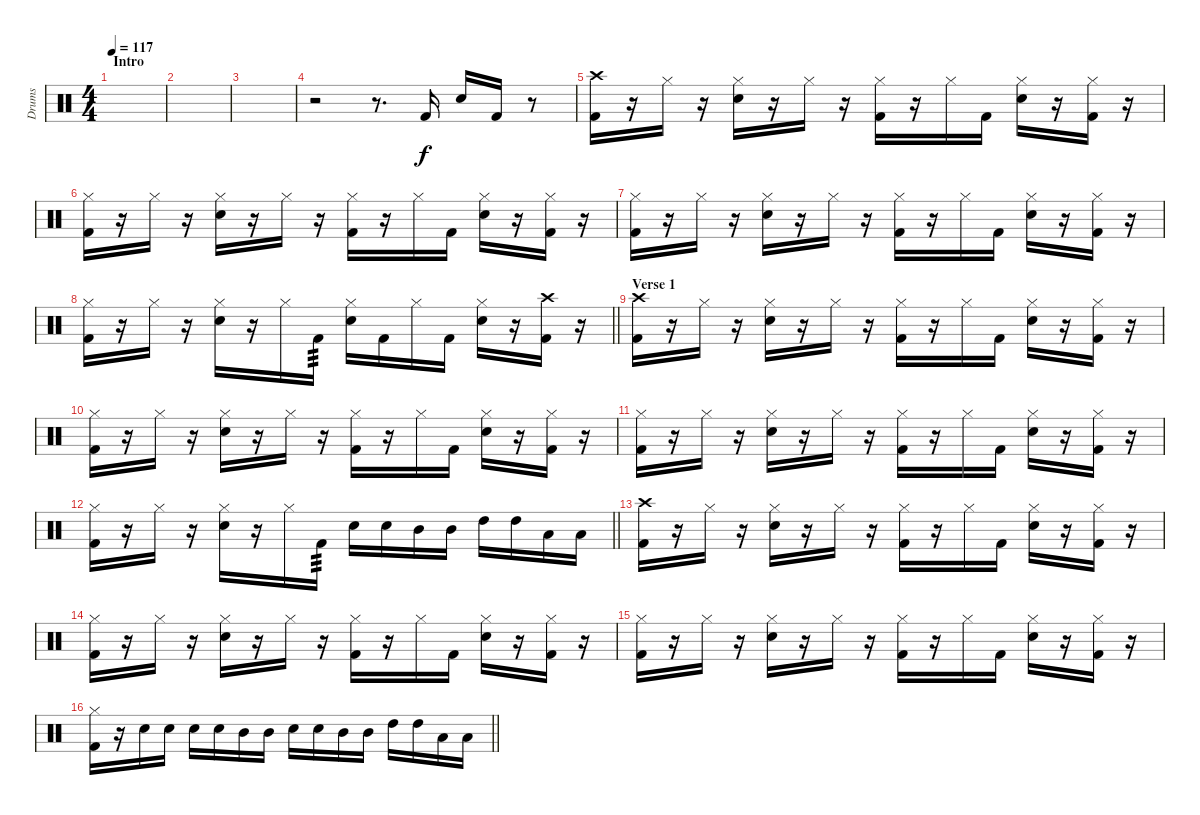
\track ("Drums" "Drums") {instrument percussion}
\staff {score}
\articulation defaults
\ts (4 4)
\section ("" "Intro")
\tempo 117
\clef neutral
\ks c
|
|
|
r.2 r.8{d} "Kick (hit) 2".16 "Electric Snare (hit)".16 "Kick (hit) 2".16 r.8 |
("Crash high (hit)" "Kick (hit) 2").16 r.16 "Hi-Hat (closed)".16 r.16 ("Hi-Hat (closed)" "Electric Snare (hit)").16 r.16 "Hi-Hat (closed)".16 r.16 ("Hi-Hat (closed)" "Kick (hit) 2").16 r.16 "Hi-Hat (closed)".16 "Kick (hit) 2".16 ("Hi-Hat (closed)" "Electric Snare (hit)").16 r.16 ("Hi-Hat (closed)" "Kick (hit) 2").16 r.16 |
("Hi-Hat (closed)" "Kick (hit) 2").16 r.16 "Hi-Hat (closed)".16 r.16 ("Hi-Hat (closed)" "Electric Snare (hit)").16 r.16 "Hi-Hat (closed)".16 r.16 ("Hi-Hat (closed)" "Kick (hit) 2").16 r.16 "Hi-Hat (closed)".16 "Kick (hit) 2".16 ("Hi-Hat (closed)" "Electric Snare (hit)").16 r.16 ("Hi-Hat (closed)" "Kick (hit) 2").16 r.16 |
("Hi-Hat (closed)" "Kick (hit) 2").16 r.16 "Hi-Hat (closed)".16 r.16 ("Hi-Hat (closed)" "Electric Snare (hit)").16 r.16 "Hi-Hat (closed)".16 r.16 ("Hi-Hat (closed)" "Kick (hit) 2").16 r.16 "Hi-Hat (closed)".16 "Kick (hit) 2".16 ("Hi-Hat (closed)" "Electric Snare (hit)").16 r.16 ("Hi-Hat (closed)" "Kick (hit) 2").16 r.16 |
\barLineRight lightlight
("Hi-Hat (closed)" "Kick (hit) 2").16 r.16 "Hi-Hat (closed)".16 r.16 ("Hi-Hat (closed)" "Electric Snare (hit)").16 r.16 "Hi-Hat (closed)".16 "Kick (hit) 2".16{tp 3} ("Hi-Hat (closed)" "Electric Snare (hit)").16 "Kick (hit) 2".16 "Hi-Hat (closed)".16 "Kick (hit) 2".16 ("Hi-Hat (closed)" "Electric Snare (hit)").16 r.16 ("Crash high (hit)" "Kick (hit) 2").16 r.16 |
\section ("" "Verse 1")
("Crash high (hit)" "Kick (hit) 2").16 r.16 "Hi-Hat (closed)".16 r.16 ("Hi-Hat (closed)" "Electric Snare (hit)").16 r.16 "Hi-Hat (closed)".16 r.16 ("Hi-Hat (closed)" "Kick (hit) 2").16 r.16 "Hi-Hat (closed)".16 "Kick (hit) 2".16 ("Hi-Hat (closed)" "Electric Snare (hit)").16 r.16 ("Hi-Hat (closed)" "Kick (hit) 2").16 r.16 |
("Hi-Hat (closed)" "Kick (hit) 2").16 r.16 "Hi-Hat (closed)".16 r.16 ("Hi-Hat (closed)" "Electric Snare (hit)").16 r.16 "Hi-Hat (closed)".16 r.16 ("Hi-Hat (closed)" "Kick (hit) 2").16 r.16 "Hi-Hat (closed)".16 "Kick (hit) 2".16 ("Hi-Hat (closed)" "Electric Snare (hit)").16 r.16 ("Hi-Hat (closed)" "Kick (hit) 2").16 r.16 |
("Hi-Hat (closed)" "Kick (hit) 2").16 r.16 "Hi-Hat (closed)".16 r.16 ("Hi-Hat (closed)" "Electric Snare (hit)").16 r.16 "Hi-Hat (closed)".16 r.16 ("Hi-Hat (closed)" "Kick (hit) 2").16 r.16 "Hi-Hat (closed)".16 "Kick (hit) 2".16 ("Hi-Hat (closed)" "Electric Snare (hit)").16 r.16 ("Hi-Hat (closed)" "Kick (hit) 2").16 r.16 |
\barLineRight lightlight
("Hi-Hat (closed)" "Kick (hit) 2").16 r.16 "Hi-Hat (closed)".16 r.16 ("Hi-Hat (closed)" "Electric Snare (hit)").16 r.16 "Hi-Hat (closed)".16 "Kick (hit) 2".16{tp 3} "Electric Snare (hit)".16 "Electric Snare (hit)".16 "Mid Tom (hit)".16 "Mid Tom (hit)".16 "High Tom (hit)".16 "High Tom (hit)".16 "Low Tom (hit)".16 "Low Tom (hit)".16 |
("Crash high (hit)" "Kick (hit) 2").16 r.16 "Hi-Hat (closed)".16 r.16 ("Hi-Hat (closed)" "Electric Snare (hit)").16 r.16 "Hi-Hat (closed)".16 r.16 ("Hi-Hat (closed)" "Kick (hit) 2").16 r.16 "Hi-Hat (closed)".16 "Kick (hit) 2".16 ("Hi-Hat (closed)" "Electric Snare (hit)").16 r.16 ("Hi-Hat (closed)" "Kick (hit) 2").16 r.16 |
("Hi-Hat (closed)" "Kick (hit) 2").16 r.16 "Hi-Hat (closed)".16 r.16 ("Hi-Hat (closed)" "Electric Snare (hit)").16 r.16 "Hi-Hat (closed)".16 r.16 ("Hi-Hat (closed)" "Kick (hit) 2").16 r.16 "Hi-Hat (closed)".16 "Kick (hit) 2".16 ("Hi-Hat (closed)" "Electric Snare (hit)").16 r.16 ("Hi-Hat (closed)" "Kick (hit) 2").16 r.16 |
("Hi-Hat (closed)" "Kick (hit) 2").16 r.16 "Hi-Hat (closed)".16 r.16 ("Hi-Hat (closed)" "Electric Snare (hit)").16 r.16 "Hi-Hat (closed)".16 r.16 ("Hi-Hat (closed)" "Kick (hit) 2").16 r.16 "Hi-Hat (closed)".16 "Kick (hit) 2".16 ("Hi-Hat (closed)" "Electric Snare (hit)").16 r.16 ("Hi-Hat (closed)" "Kick (hit) 2").16 r.16 |
\barLineRight lightlight
("Hi-Hat (closed)" "Kick (hit) 2").16 r.16 "Electric Snare (hit)".16 "Electric Snare (hit)".16 "Electric Snare (hit)".16 "Electric Snare (hit)".16 "Mid Tom (hit)".16 "Mid Tom (hit)".16 "Electric Snare (hit)".16 "Electric Snare (hit)".16 "Mid Tom (hit)".16 "Mid Tom (hit)".16 "High Tom (hit)".16 "High Tom (hit)".16 "Low Tom (hit)".16 "Low Tom (hit)".16
